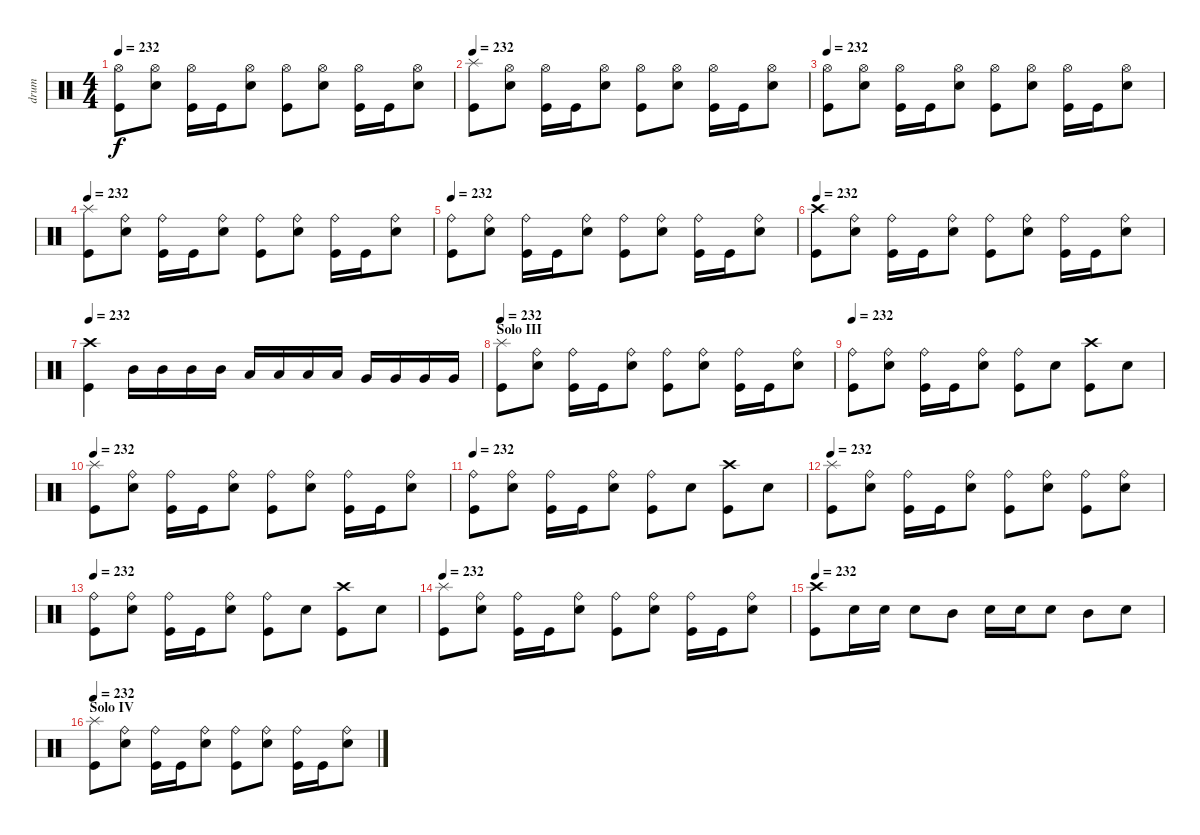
\track ("drum" "drum") {instrument percussion}
\staff {score}
\articulation defaults
\ts (4 4)
\tempo 232
\clef neutral
\ks c
("Kick (hit)" "Hi-Hat (open)").8{dy f} ("Electric Snare (hit)" "Hi-Hat (open)").8 ("Kick (hit)" "Hi-Hat (open)").16 "Kick (hit)".16 ("Electric Snare (hit)" "Hi-Hat (open)").8 ("Kick (hit)" "Hi-Hat (open)").8 ("Electric Snare (hit)" "Hi-Hat (open)").8 ("Kick (hit)" "Hi-Hat (open)").16 "Kick (hit)".16 ("Electric Snare (hit)" "Hi-Hat (open)").8 |
\tempo 232
("Kick (hit)" "Splash (hit)").8 ("Electric Snare (hit)" "Hi-Hat (open)").8 ("Kick (hit)" "Hi-Hat (open)").16 "Kick (hit)".16 ("Electric Snare (hit)" "Hi-Hat (open)").8 ("Kick (hit)" "Hi-Hat (open)").8 ("Electric Snare (hit)" "Hi-Hat (open)").8 ("Kick (hit)" "Hi-Hat (open)").16 "Kick (hit)".16 ("Electric Snare (hit)" "Hi-Hat (open)").8 |
\tempo 232
("Kick (hit)" "Hi-Hat (open)").8 ("Electric Snare (hit)" "Hi-Hat (open)").8 ("Kick (hit)" "Hi-Hat (open)").16 "Kick (hit)".16 ("Electric Snare (hit)" "Hi-Hat (open)").8 ("Kick (hit)" "Hi-Hat (open)").8 ("Electric Snare (hit)" "Hi-Hat (open)").8 ("Kick (hit)" "Hi-Hat (open)").16 "Kick (hit)".16 ("Electric Snare (hit)" "Hi-Hat (open)").8 |
\tempo 232
("Kick (hit)" "Splash (hit)").8 ("Electric Snare (hit)" "Ride (bell)").8 ("Kick (hit)" "Ride (bell)").16 "Kick (hit)".16 ("Electric Snare (hit)" "Ride (bell)").8 ("Kick (hit)" "Ride (bell)").8 ("Electric Snare (hit)" "Ride (bell)").8 ("Kick (hit)" "Ride (bell)").16 "Kick (hit)".16 ("Electric Snare (hit)" "Ride (bell)").8 |
\tempo 232
("Kick (hit)" "Ride (bell)").8 ("Electric Snare (hit)" "Ride (bell)").8 ("Kick (hit)" "Ride (bell)").16 "Kick (hit)".16 ("Electric Snare (hit)" "Ride (bell)").8 ("Kick (hit)" "Ride (bell)").8 ("Electric Snare (hit)" "Ride (bell)").8 ("Kick (hit)" "Ride (bell)").16 "Kick (hit)".16 ("Electric Snare (hit)" "Ride (bell)").8 |
\tempo 232
("Kick (hit)" "Crash high (hit)").8 ("Electric Snare (hit)" "Ride (bell)").8 ("Kick (hit)" "Ride (bell)").16 "Kick (hit)".16 ("Electric Snare (hit)" "Ride (bell)").8 ("Kick (hit)" "Ride (bell)").8 ("Electric Snare (hit)" "Ride (bell)").8 ("Kick (hit)" "Ride (bell)").16 "Kick (hit)".16 ("Electric Snare (hit)" "Ride (bell)").8 |
\tempo 232
("Kick (hit)" "Crash high (hit)").4 "Mid Tom (hit)".16 "Mid Tom (hit)".16 "Mid Tom (hit)".16 "Mid Tom (hit)".16 "Low Tom (hit)".16 "Low Tom (hit)".16 "Low Tom (hit)".16 "Low Tom (hit)".16 "Very Low Tom (hit)".16 "Very Low Tom (hit)".16 "Very Low Tom (hit)".16 "Very Low Tom (hit)".16 |
\section ("" "Solo III")
\tempo 232
("Kick (hit)" "Splash (hit)").8 ("Electric Snare (hit)" "Ride (bell)").8 ("Kick (hit)" "Ride (bell)").16 "Kick (hit)".16 ("Electric Snare (hit)" "Ride (bell)").8 ("Kick (hit)" "Ride (bell)").8 ("Electric Snare (hit)" "Ride (bell)").8 ("Kick (hit)" "Ride (bell)").16 "Kick (hit)".16 ("Electric Snare (hit)" "Ride (bell)").8 |
\tempo 232
("Kick (hit)" "Ride (bell)").8 ("Electric Snare (hit)" "Ride (bell)").8 ("Kick (hit)" "Ride (bell)").16 "Kick (hit)".16 ("Electric Snare (hit)" "Ride (bell)").8 ("Kick (hit)" "Ride (bell)").8 "Electric Snare (hit)".8 ("Kick (hit)" "Crash high (hit)").8 "Electric Snare (hit)".8 |
\tempo 232
("Kick (hit)" "Splash (hit)").8 ("Electric Snare (hit)" "Ride (bell)").8 ("Kick (hit)" "Ride (bell)").16 "Kick (hit)".16 ("Electric Snare (hit)" "Ride (bell)").8 ("Kick (hit)" "Ride (bell)").8 ("Electric Snare (hit)" "Ride (bell)").8 ("Kick (hit)" "Ride (bell)").16 "Kick (hit)".16 ("Electric Snare (hit)" "Ride (bell)").8 |
\tempo 232
("Kick (hit)" "Ride (bell)").8 ("Electric Snare (hit)" "Ride (bell)").8 ("Kick (hit)" "Ride (bell)").16 "Kick (hit)".16 ("Electric Snare (hit)" "Ride (bell)").8 ("Kick (hit)" "Ride (bell)").8 "Electric Snare (hit)".8 ("Kick (hit)" "Crash high (hit)").8 "Electric Snare (hit)".8 |
\tempo 232
("Kick (hit)" "Splash (hit)").8 ("Electric Snare (hit)" "Ride (bell)").8 ("Kick (hit)" "Ride (bell)").16 "Kick (hit)".16 ("Electric Snare (hit)" "Ride (bell)").8 ("Kick (hit)" "Ride (bell)").8 ("Electric Snare (hit)" "Ride (bell)").8 ("Kick (hit)" "Ride (bell)").8 ("Electric Snare (hit)" "Ride (bell)").8 |
\tempo 232
("Kick (hit)" "Ride (bell)").8 ("Electric Snare (hit)" "Ride (bell)").8 ("Kick (hit)" "Ride (bell)").16 "Kick (hit)".16 ("Electric Snare (hit)" "Ride (bell)").8 ("Kick (hit)" "Ride (bell)").8 "Electric Snare (hit)".8 ("Kick (hit)" "Crash high (hit)").8 "Electric Snare (hit)".8 |
\tempo 232
("Kick (hit)" "Splash (hit)").8 ("Electric Snare (hit)" "Ride (bell)").8 ("Kick (hit)" "Ride (bell)").16 "Kick (hit)".16 ("Electric Snare (hit)" "Ride (bell)").8 ("Kick (hit)" "Ride (bell)").8 ("Electric Snare (hit)" "Ride (bell)").8 ("Kick (hit)" "Ride (bell)").16 "Kick (hit)".16 ("Electric Snare (hit)" "Ride (bell)").8 |
\tempo 232
("Kick (hit)" "Crash high (hit)").8 "Electric Snare (hit)".16 "Electric Snare (hit)".16 "Electric Snare (hit)".8 "Mid Tom (hit)".8 "Electric Snare (hit)".16 "Electric Snare (hit)".16 "Electric Snare (hit)".8 "Mid Tom (hit)".8 "Electric Snare (hit)".8 |
\section ("" "Solo IV")
\tempo 232
("Kick (hit)" "Splash (hit)").8 ("Electric Snare (hit)" "Ride (bell)").8 ("Kick (hit)" "Ride (bell)").16 "Kick (hit)".16 ("Electric Snare (hit)" "Ride (bell)").8 ("Kick (hit)" "Ride (bell)").8 ("Electric Snare (hit)" "Ride (bell)").8 ("Kick (hit)" "Ride (bell)").16 "Kick (hit)".16 ("Electric Snare (hit)" "Ride (bell)").8
